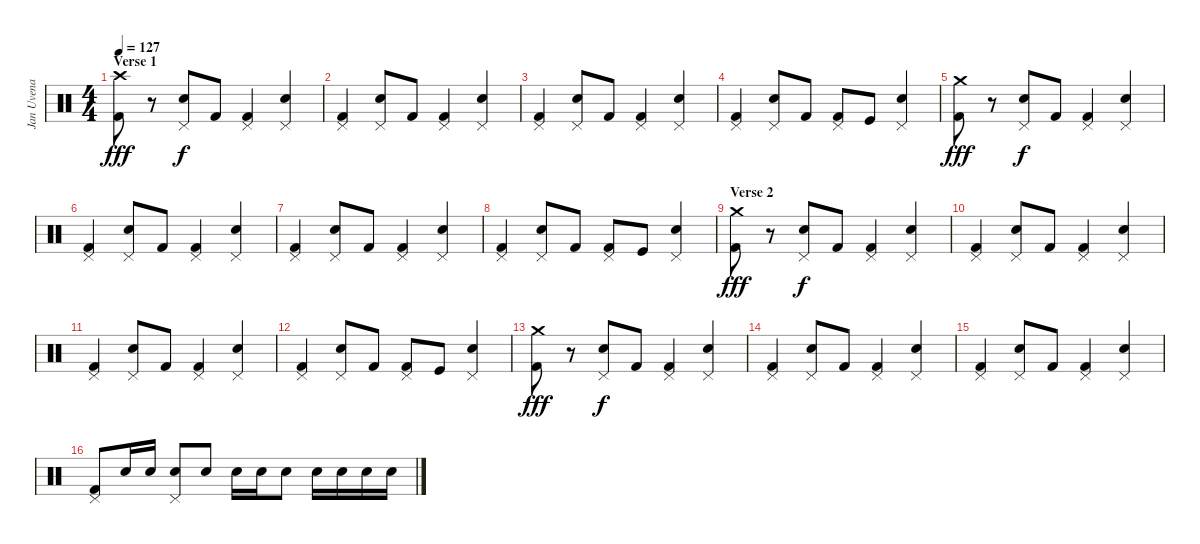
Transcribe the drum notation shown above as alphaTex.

\track ("Jan Uvena" "Jan Uvena") {instrument percussion}
\staff {score}
\articulation defaults
\ts (4 4)
\section ("" "Verse 1")
\tempo 127
\clef neutral
\ks c
("Crash high (hit)" "Kick (hit) 2").8{dy fff} r.8 ("Pedal Hi-Hat (hit)" "Snare (hit) 2").8{dy f} "Kick (hit) 2".8 ("Pedal Hi-Hat (hit)" "Kick (hit) 2").4 ("Pedal Hi-Hat (hit)" "Snare (hit) 2").4 |
("Pedal Hi-Hat (hit)" "Kick (hit) 2").4 ("Pedal Hi-Hat (hit)" "Snare (hit) 2").8 "Kick (hit) 2".8 ("Pedal Hi-Hat (hit)" "Kick (hit) 2").4 ("Pedal Hi-Hat (hit)" "Snare (hit) 2").4 |
("Pedal Hi-Hat (hit)" "Kick (hit) 2").4 ("Pedal Hi-Hat (hit)" "Snare (hit) 2").8 "Kick (hit) 2".8 ("Pedal Hi-Hat (hit)" "Kick (hit) 2").4 ("Pedal Hi-Hat (hit)" "Snare (hit) 2").4 |
("Pedal Hi-Hat (hit)" "Kick (hit) 2").4 ("Pedal Hi-Hat (hit)" "Snare (hit) 2").8 "Kick (hit) 2".8 ("Pedal Hi-Hat (hit)" "Kick (hit) 2").8 "Kick (hit)".8 ("Pedal Hi-Hat (hit)" "Snare (hit) 2").4 |
("Crash medium (hit)" "Kick (hit) 2").8{dy fff} r.8 ("Pedal Hi-Hat (hit)" "Snare (hit) 2").8{dy f} "Kick (hit) 2".8 ("Pedal Hi-Hat (hit)" "Kick (hit) 2").4 ("Pedal Hi-Hat (hit)" "Snare (hit) 2").4 |
("Pedal Hi-Hat (hit)" "Kick (hit) 2").4 ("Pedal Hi-Hat (hit)" "Snare (hit) 2").8 "Kick (hit) 2".8 ("Pedal Hi-Hat (hit)" "Kick (hit) 2").4 ("Pedal Hi-Hat (hit)" "Snare (hit) 2").4 |
("Pedal Hi-Hat (hit)" "Kick (hit) 2").4 ("Pedal Hi-Hat (hit)" "Snare (hit) 2").8 "Kick (hit) 2".8 ("Pedal Hi-Hat (hit)" "Kick (hit) 2").4 ("Pedal Hi-Hat (hit)" "Snare (hit) 2").4 |
("Pedal Hi-Hat (hit)" "Kick (hit) 2").4 ("Pedal Hi-Hat (hit)" "Snare (hit) 2").8 "Kick (hit) 2".8 ("Pedal Hi-Hat (hit)" "Kick (hit) 2").8 "Kick (hit)".8 ("Pedal Hi-Hat (hit)" "Snare (hit) 2").4 |
\section ("" "Verse 2")
("Crash medium (hit)" "Kick (hit) 2").8{dy fff} r.8 ("Pedal Hi-Hat (hit)" "Snare (hit) 2").8{dy f} "Kick (hit) 2".8 ("Pedal Hi-Hat (hit)" "Kick (hit) 2").4 ("Pedal Hi-Hat (hit)" "Snare (hit) 2").4 |
("Pedal Hi-Hat (hit)" "Kick (hit) 2").4 ("Pedal Hi-Hat (hit)" "Snare (hit) 2").8 "Kick (hit) 2".8 ("Pedal Hi-Hat (hit)" "Kick (hit) 2").4 ("Pedal Hi-Hat (hit)" "Snare (hit) 2").4 |
("Pedal Hi-Hat (hit)" "Kick (hit) 2").4 ("Pedal Hi-Hat (hit)" "Snare (hit) 2").8 "Kick (hit) 2".8 ("Pedal Hi-Hat (hit)" "Kick (hit) 2").4 ("Pedal Hi-Hat (hit)" "Snare (hit) 2").4 |
("Pedal Hi-Hat (hit)" "Kick (hit) 2").4 ("Pedal Hi-Hat (hit)" "Snare (hit) 2").8 "Kick (hit) 2".8 ("Pedal Hi-Hat (hit)" "Kick (hit) 2").8 "Kick (hit)".8 ("Pedal Hi-Hat (hit)" "Snare (hit) 2").4 |
("Crash medium (hit)" "Kick (hit) 2").8{dy fff} r.8 ("Pedal Hi-Hat (hit)" "Snare (hit) 2").8{dy f} "Kick (hit) 2".8 ("Pedal Hi-Hat (hit)" "Kick (hit) 2").4 ("Pedal Hi-Hat (hit)" "Snare (hit) 2").4 |
("Pedal Hi-Hat (hit)" "Kick (hit) 2").4 ("Pedal Hi-Hat (hit)" "Snare (hit) 2").8 "Kick (hit) 2".8 ("Pedal Hi-Hat (hit)" "Kick (hit) 2").4 ("Pedal Hi-Hat (hit)" "Snare (hit) 2").4 |
("Pedal Hi-Hat (hit)" "Kick (hit) 2").4 ("Pedal Hi-Hat (hit)" "Snare (hit) 2").8 "Kick (hit) 2".8 ("Pedal Hi-Hat (hit)" "Kick (hit) 2").4 ("Pedal Hi-Hat (hit)" "Snare (hit) 2").4 |
("Pedal Hi-Hat (hit)" "Kick (hit) 2").8 "Snare (hit) 2".16 "Snare (hit) 2".16 ("Pedal Hi-Hat (hit)" "Snare (hit) 2").8 "Snare (hit) 2".8 "Snare (hit) 2".16 "Snare (hit) 2".16 "Snare (hit) 2".8 "Snare (hit) 2".16 "Snare (hit) 2".16 "Snare (hit) 2".16 "Snare (hit) 2".16
